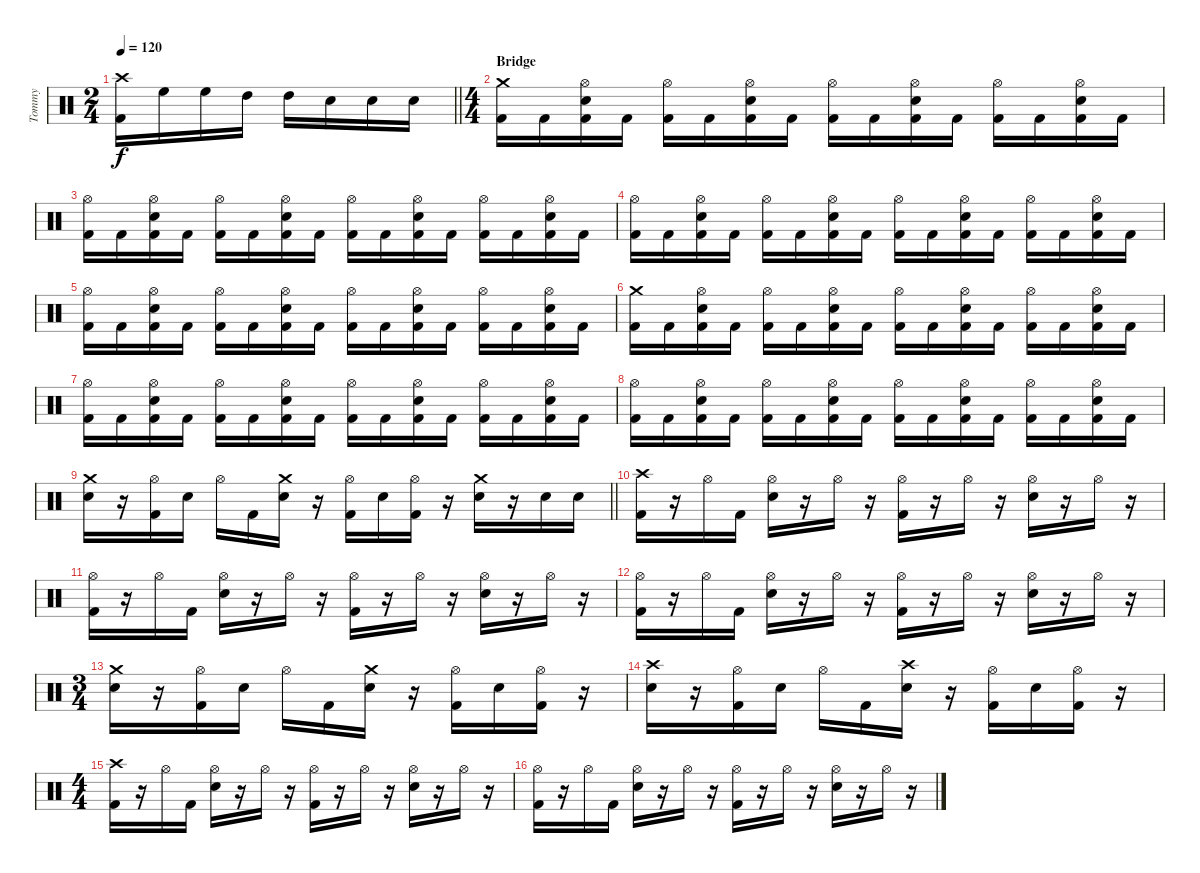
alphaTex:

\track ("Tommy" "Tommy") {instrument percussion}
\staff {score}
\articulation defaults
\ts (2 4)
\tempo 120
\clef neutral
\barLineRight lightlight
\ks c
("Crash high (hit)" "Kick (hit) 2").16{dy f} "High Floor Tom (hit)".16 "High Floor Tom (hit)".16 "High Tom (hit)".16 "High Tom (hit)".16 "Electric Snare (hit)".16 "Electric Snare (hit)".16 "Electric Snare (hit)".16 |
\ts (4 4)
\section ("" "Bridge")
("Crash medium (hit)" "Kick (hit) 2").16 "Kick (hit) 2".16 ("Hi-Hat (open)" "Electric Snare (hit)" "Kick (hit) 2").16 "Kick (hit) 2".16 ("Hi-Hat (open)" "Kick (hit) 2").16 "Kick (hit) 2".16 ("Hi-Hat (open)" "Electric Snare (hit)" "Kick (hit) 2").16 "Kick (hit) 2".16 ("Hi-Hat (open)" "Kick (hit) 2").16 "Kick (hit) 2".16 ("Hi-Hat (open)" "Electric Snare (hit)" "Kick (hit) 2").16 "Kick (hit) 2".16 ("Hi-Hat (open)" "Kick (hit) 2").16 "Kick (hit) 2".16 ("Hi-Hat (open)" "Electric Snare (hit)" "Kick (hit) 2").16 "Kick (hit) 2".16 |
("Hi-Hat (open)" "Kick (hit) 2").16 "Kick (hit) 2".16 ("Hi-Hat (open)" "Electric Snare (hit)" "Kick (hit) 2").16 "Kick (hit) 2".16 ("Hi-Hat (open)" "Kick (hit) 2").16 "Kick (hit) 2".16 ("Hi-Hat (open)" "Electric Snare (hit)" "Kick (hit) 2").16 "Kick (hit) 2".16 ("Hi-Hat (open)" "Kick (hit) 2").16 "Kick (hit) 2".16 ("Hi-Hat (open)" "Electric Snare (hit)" "Kick (hit) 2").16 "Kick (hit) 2".16 ("Hi-Hat (open)" "Kick (hit) 2").16 "Kick (hit) 2".16 ("Hi-Hat (open)" "Electric Snare (hit)" "Kick (hit) 2").16 "Kick (hit) 2".16 |
("Hi-Hat (open)" "Kick (hit) 2").16 "Kick (hit) 2".16 ("Hi-Hat (open)" "Electric Snare (hit)" "Kick (hit) 2").16 "Kick (hit) 2".16 ("Hi-Hat (open)" "Kick (hit) 2").16 "Kick (hit) 2".16 ("Hi-Hat (open)" "Electric Snare (hit)" "Kick (hit) 2").16 "Kick (hit) 2".16 ("Hi-Hat (open)" "Kick (hit) 2").16 "Kick (hit) 2".16 ("Hi-Hat (open)" "Electric Snare (hit)" "Kick (hit) 2").16 "Kick (hit) 2".16 ("Hi-Hat (open)" "Kick (hit) 2").16 "Kick (hit) 2".16 ("Hi-Hat (open)" "Electric Snare (hit)" "Kick (hit) 2").16 "Kick (hit) 2".16 |
("Hi-Hat (open)" "Kick (hit) 2").16 "Kick (hit) 2".16 ("Hi-Hat (open)" "Electric Snare (hit)" "Kick (hit) 2").16 "Kick (hit) 2".16 ("Hi-Hat (open)" "Kick (hit) 2").16 "Kick (hit) 2".16 ("Hi-Hat (open)" "Electric Snare (hit)" "Kick (hit) 2").16 "Kick (hit) 2".16 ("Hi-Hat (open)" "Kick (hit) 2").16 "Kick (hit) 2".16 ("Hi-Hat (open)" "Electric Snare (hit)" "Kick (hit) 2").16 "Kick (hit) 2".16 ("Hi-Hat (open)" "Kick (hit) 2").16 "Kick (hit) 2".16 ("Hi-Hat (open)" "Electric Snare (hit)" "Kick (hit) 2").16 "Kick (hit) 2".16 |
("Crash medium (hit)" "Kick (hit) 2").16 "Kick (hit) 2".16 ("Hi-Hat (open)" "Electric Snare (hit)" "Kick (hit) 2").16 "Kick (hit) 2".16 ("Hi-Hat (open)" "Kick (hit) 2").16 "Kick (hit) 2".16 ("Hi-Hat (open)" "Electric Snare (hit)" "Kick (hit) 2").16 "Kick (hit) 2".16 ("Hi-Hat (open)" "Kick (hit) 2").16 "Kick (hit) 2".16 ("Hi-Hat (open)" "Electric Snare (hit)" "Kick (hit) 2").16 "Kick (hit) 2".16 ("Hi-Hat (open)" "Kick (hit) 2").16 "Kick (hit) 2".16 ("Hi-Hat (open)" "Electric Snare (hit)" "Kick (hit) 2").16 "Kick (hit) 2".16 |
("Hi-Hat (open)" "Kick (hit) 2").16 "Kick (hit) 2".16 ("Hi-Hat (open)" "Electric Snare (hit)" "Kick (hit) 2").16 "Kick (hit) 2".16 ("Hi-Hat (open)" "Kick (hit) 2").16 "Kick (hit) 2".16 ("Hi-Hat (open)" "Electric Snare (hit)" "Kick (hit) 2").16 "Kick (hit) 2".16 ("Hi-Hat (open)" "Kick (hit) 2").16 "Kick (hit) 2".16 ("Hi-Hat (open)" "Electric Snare (hit)" "Kick (hit) 2").16 "Kick (hit) 2".16 ("Hi-Hat (open)" "Kick (hit) 2").16 "Kick (hit) 2".16 ("Hi-Hat (open)" "Electric Snare (hit)" "Kick (hit) 2").16 "Kick (hit) 2".16 |
("Hi-Hat (open)" "Kick (hit) 2").16 "Kick (hit) 2".16 ("Hi-Hat (open)" "Electric Snare (hit)" "Kick (hit) 2").16 "Kick (hit) 2".16 ("Hi-Hat (open)" "Kick (hit) 2").16 "Kick (hit) 2".16 ("Hi-Hat (open)" "Electric Snare (hit)" "Kick (hit) 2").16 "Kick (hit) 2".16 ("Hi-Hat (open)" "Kick (hit) 2").16 "Kick (hit) 2".16 ("Hi-Hat (open)" "Electric Snare (hit)" "Kick (hit) 2").16 "Kick (hit) 2".16 ("Hi-Hat (open)" "Kick (hit) 2").16 "Kick (hit) 2".16 ("Hi-Hat (open)" "Electric Snare (hit)" "Kick (hit) 2").16 "Kick (hit) 2".16 |
\barLineRight lightlight
("Crash medium (hit)" "Electric Snare (hit)").16 r.16 ("Hi-Hat (open)" "Kick (hit) 2").16 "Electric Snare (hit)".16 "Hi-Hat (open)".16 "Kick (hit) 2".16 ("Crash medium (hit)" "Electric Snare (hit)").16 r.16 ("Hi-Hat (open)" "Kick (hit) 2").16 "Electric Snare (hit)".16 ("Hi-Hat (open)" "Kick (hit) 2").16 r.16 ("Crash medium (hit)" "Electric Snare (hit)").16 r.16 "Electric Snare (hit)".16 "Electric Snare (hit)".16 |
\section ("" "")
("Crash high (hit)" "Kick (hit) 2").16 r.16 "Hi-Hat (open)".16 "Kick (hit) 2".16 ("Hi-Hat (open)" "Electric Snare (hit)").16 r.16 "Hi-Hat (open)".16 r.16 ("Hi-Hat (open)" "Kick (hit) 2").16 r.16 "Hi-Hat (open)".16 r.16 ("Hi-Hat (open)" "Electric Snare (hit)").16 r.16 "Hi-Hat (open)".16 r.16 |
("Hi-Hat (open)" "Kick (hit) 2").16 r.16 "Hi-Hat (open)".16 "Kick (hit) 2".16 ("Hi-Hat (open)" "Electric Snare (hit)").16 r.16 "Hi-Hat (open)".16 r.16 ("Hi-Hat (open)" "Kick (hit) 2").16 r.16 "Hi-Hat (open)".16 r.16 ("Hi-Hat (open)" "Electric Snare (hit)").16 r.16 "Hi-Hat (open)".16 r.16 |
("Hi-Hat (open)" "Kick (hit) 2").16 r.16 "Hi-Hat (open)".16 "Kick (hit) 2".16 ("Hi-Hat (open)" "Electric Snare (hit)").16 r.16 "Hi-Hat (open)".16 r.16 ("Hi-Hat (open)" "Kick (hit) 2").16 r.16 "Hi-Hat (open)".16 r.16 ("Hi-Hat (open)" "Electric Snare (hit)").16 r.16 "Hi-Hat (open)".16 r.16 |
\ts (3 4)
("Crash medium (hit)" "Electric Snare (hit)").16 r.16 ("Hi-Hat (open)" "Kick (hit) 2").16 "Electric Snare (hit)".16 "Hi-Hat (open)".16 "Kick (hit) 2".16 ("Crash medium (hit)" "Electric Snare (hit)").16 r.16 ("Hi-Hat (open)" "Kick (hit) 2").16 "Electric Snare (hit)".16 ("Hi-Hat (open)" "Kick (hit) 2").16 r.16 |
("Crash high (hit)" "Electric Snare (hit)").16 r.16 ("Hi-Hat (open)" "Kick (hit) 2").16 "Electric Snare (hit)".16 "Hi-Hat (open)".16 "Kick (hit) 2".16 ("Crash high (hit)" "Electric Snare (hit)").16 r.16 ("Hi-Hat (open)" "Kick (hit) 2").16 "Electric Snare (hit)".16 ("Hi-Hat (open)" "Kick (hit) 2").16 r.16 |
\ts (4 4)
("Crash high (hit)" "Kick (hit) 2").16 r.16 "Hi-Hat (open)".16 "Kick (hit) 2".16 ("Hi-Hat (open)" "Electric Snare (hit)").16 r.16 "Hi-Hat (open)".16 r.16 ("Hi-Hat (open)" "Kick (hit) 2").16 r.16 "Hi-Hat (open)".16 r.16 ("Hi-Hat (open)" "Electric Snare (hit)").16 r.16 "Hi-Hat (open)".16 r.16 |
("Hi-Hat (open)" "Kick (hit) 2").16 r.16 "Hi-Hat (open)".16 "Kick (hit) 2".16 ("Hi-Hat (open)" "Electric Snare (hit)").16 r.16 "Hi-Hat (open)".16 r.16 ("Hi-Hat (open)" "Kick (hit) 2").16 r.16 "Hi-Hat (open)".16 r.16 ("Hi-Hat (open)" "Electric Snare (hit)").16 r.16 "Hi-Hat (open)".16 r.16
